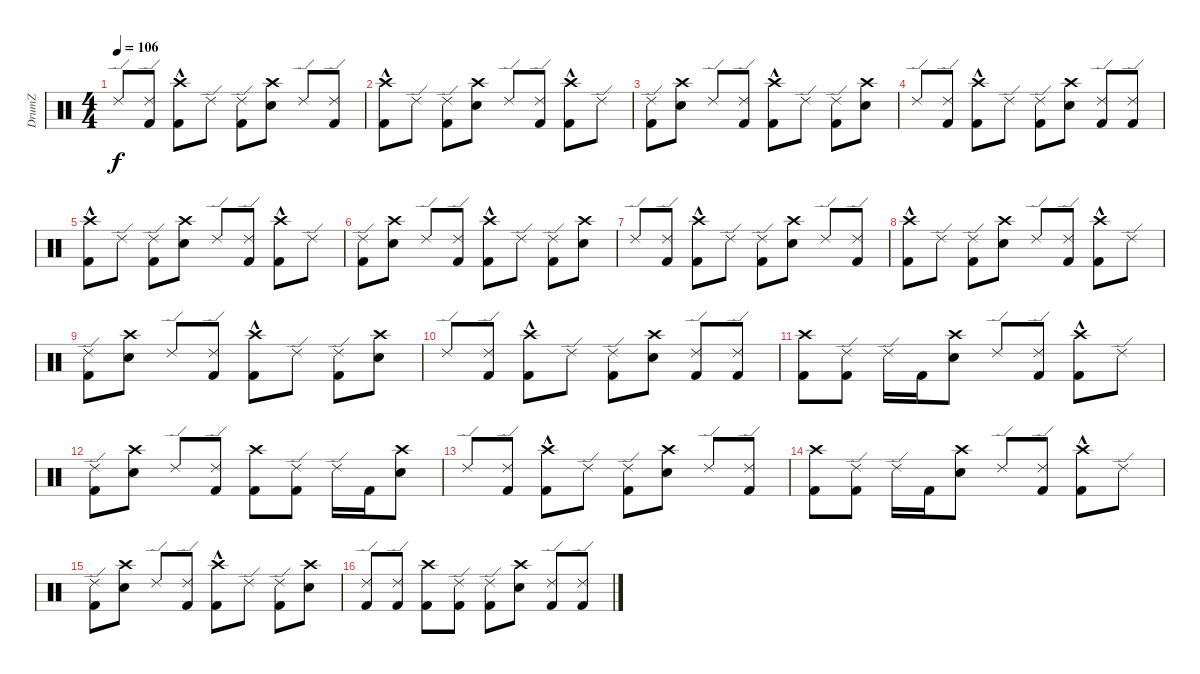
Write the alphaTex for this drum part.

\track ("DrumZ" "DrumZ") {instrument percussion}
\staff {score}
\articulation defaults
\ts (4 4)
\tempo 106
\clef neutral
\ks c "Ride (edge) 2".8{dy f}
("Ride (edge) 2" "Kick (hit) 2").8 ("Kick (hit) 2"{hac} "Crash high (hit)").8 "Ride (edge) 2".8 ("Kick (hit) 2" "Ride (edge) 2").8 ("Crash high (hit)" "Electric Snare (hit)").8 "Ride (edge) 2".8 ("Ride (edge) 2" "Kick (hit) 2").8 |
("Kick (hit) 2"{hac} "Crash high (hit)").8 "Ride (edge) 2".8 ("Kick (hit) 2" "Ride (edge) 2").8 ("Crash high (hit)" "Electric Snare (hit)").8 "Ride (edge) 2".8 ("Ride (edge) 2" "Kick (hit) 2").8 ("Kick (hit) 2"{hac} "Crash high (hit)").8 "Ride (edge) 2".8 |
("Kick (hit) 2" "Ride (edge) 2").8 ("Crash high (hit)" "Electric Snare (hit)").8 "Ride (edge) 2".8 ("Ride (edge) 2" "Kick (hit) 2").8 ("Kick (hit) 2"{hac} "Crash high (hit)").8 "Ride (edge) 2".8 ("Kick (hit) 2" "Ride (edge) 2").8 ("Crash high (hit)" "Electric Snare (hit)").8 |
"Ride (edge) 2".8 ("Ride (edge) 2" "Kick (hit) 2").8 ("Kick (hit) 2"{hac} "Crash high (hit)").8 "Ride (edge) 2".8 ("Kick (hit) 2" "Ride (edge) 2").8 ("Crash high (hit)" "Electric Snare (hit)").8 ("Ride (edge) 2" "Kick (hit) 2").8 ("Ride (edge) 2" "Kick (hit) 2").8 |
("Kick (hit) 2"{hac} "Crash high (hit)").8 "Ride (edge) 2".8 ("Kick (hit) 2" "Ride (edge) 2").8 ("Crash high (hit)" "Electric Snare (hit)").8 "Ride (edge) 2".8 ("Ride (edge) 2" "Kick (hit) 2").8 ("Kick (hit) 2"{hac} "Crash high (hit)").8 "Ride (edge) 2".8 |
("Kick (hit) 2" "Ride (edge) 2").8 ("Crash high (hit)" "Electric Snare (hit)").8 "Ride (edge) 2".8 ("Ride (edge) 2" "Kick (hit) 2").8 ("Kick (hit) 2"{hac} "Crash high (hit)").8 "Ride (edge) 2".8 ("Kick (hit) 2" "Ride (edge) 2").8 ("Crash high (hit)" "Electric Snare (hit)").8 |
"Ride (edge) 2".8 ("Ride (edge) 2" "Kick (hit) 2").8 ("Kick (hit) 2"{hac} "Crash high (hit)").8 "Ride (edge) 2".8 ("Kick (hit) 2" "Ride (edge) 2").8 ("Crash high (hit)" "Electric Snare (hit)").8 "Ride (edge) 2".8 ("Ride (edge) 2" "Kick (hit) 2").8 |
("Kick (hit) 2"{hac} "Crash high (hit)").8 "Ride (edge) 2".8 ("Kick (hit) 2" "Ride (edge) 2").8 ("Crash high (hit)" "Electric Snare (hit)").8 "Ride (edge) 2".8 ("Ride (edge) 2" "Kick (hit) 2").8 ("Kick (hit) 2"{hac} "Crash high (hit)").8 "Ride (edge) 2".8 |
("Kick (hit) 2" "Ride (edge) 2").8 ("Crash high (hit)" "Electric Snare (hit)").8 "Ride (edge) 2".8 ("Ride (edge) 2" "Kick (hit) 2").8 ("Kick (hit) 2"{hac} "Crash high (hit)").8 "Ride (edge) 2".8 ("Kick (hit) 2" "Ride (edge) 2").8 ("Crash high (hit)" "Electric Snare (hit)").8 |
"Ride (edge) 2".8 ("Ride (edge) 2" "Kick (hit) 2").8 ("Kick (hit) 2"{hac} "Crash high (hit)").8 "Ride (edge) 2".8 ("Kick (hit) 2" "Ride (edge) 2").8 ("Crash high (hit)" "Electric Snare (hit)").8 ("Ride (edge) 2" "Kick (hit) 2").8 ("Ride (edge) 2" "Kick (hit) 2").8 |
("Crash high (hit)" "Kick (hit) 2").8 ("Ride (edge) 2" "Kick (hit) 2").8 "Ride (edge) 2".16 "Kick (hit) 2".16 ("Crash high (hit)" "Electric Snare (hit)").8 "Ride (edge) 2".8 ("Ride (edge) 2" "Kick (hit) 2").8 ("Kick (hit) 2"{hac} "Crash high (hit)").8 "Ride (edge) 2".8 |
("Kick (hit) 2" "Ride (edge) 2").8 ("Crash high (hit)" "Electric Snare (hit)").8 "Ride (edge) 2".8 ("Ride (edge) 2" "Kick (hit) 2").8 ("Crash high (hit)" "Kick (hit) 2").8 ("Ride (edge) 2" "Kick (hit) 2").8 "Ride (edge) 2".16 "Kick (hit) 2".16 ("Crash high (hit)" "Electric Snare (hit)").8 |
"Ride (edge) 2".8 ("Ride (edge) 2" "Kick (hit) 2").8 ("Kick (hit) 2"{hac} "Crash high (hit)").8 "Ride (edge) 2".8 ("Kick (hit) 2" "Ride (edge) 2").8 ("Crash high (hit)" "Electric Snare (hit)").8 "Ride (edge) 2".8 ("Ride (edge) 2" "Kick (hit) 2").8 |
("Crash high (hit)" "Kick (hit) 2").8 ("Ride (edge) 2" "Kick (hit) 2").8 "Ride (edge) 2".16 "Kick (hit) 2".16 ("Crash high (hit)" "Electric Snare (hit)").8 "Ride (edge) 2".8 ("Ride (edge) 2" "Kick (hit) 2").8 ("Kick (hit) 2"{hac} "Crash high (hit)").8 "Ride (edge) 2".8 |
("Kick (hit) 2" "Ride (edge) 2").8 ("Crash high (hit)" "Electric Snare (hit)").8 "Ride (edge) 2".8 ("Ride (edge) 2" "Kick (hit) 2").8 ("Kick (hit) 2"{hac} "Crash high (hit)").8 "Ride (edge) 2".8 ("Kick (hit) 2" "Ride (edge) 2").8 ("Crash high (hit)" "Electric Snare (hit)").8 |
("Ride (edge) 2" "Kick (hit) 2").8 ("Ride (edge) 2" "Kick (hit) 2").8 ("Crash high (hit)" "Kick (hit) 2").8 ("Ride (edge) 2" "Kick (hit) 2").8 ("Kick (hit) 2" "Ride (edge) 2").8 ("Crash high (hit)" "Electric Snare (hit)").8 ("Ride (edge) 2" "Kick (hit) 2").8 ("Ride (edge) 2" "Kick (hit) 2").8
